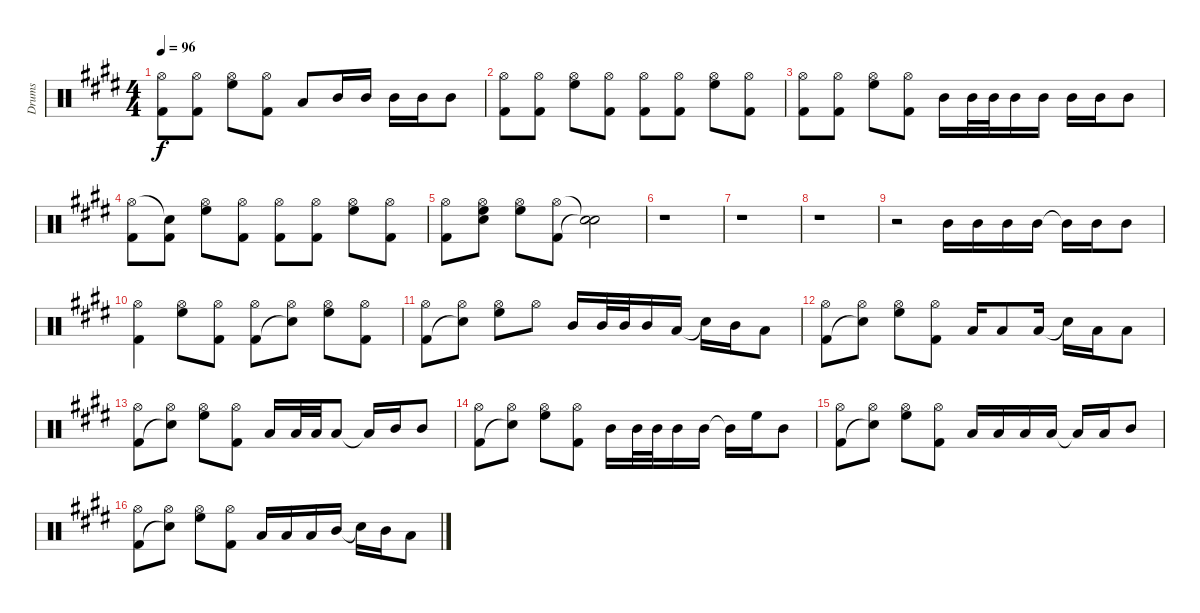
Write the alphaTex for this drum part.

\track ("Drums" "Drums") {instrument percussion}
\staff {score}
\articulation defaults
\ts (4 4)
\tempo 96
\clef neutral
\ks e
("Hi-Hat (open)" "Kick (hit) 2").8{dy f} ("Hi-Hat (open)" "Kick (hit) 2").8 ("Hi-Hat (open)" "High Floor Tom (hit)").8 ("Hi-Hat (open)" "Kick (hit) 2").8 "Low Tom (hit)".8 "Mid Tom (hit)".16 "Mid Tom (hit)".16 "Mid Tom (hit)".16 "Mid Tom (hit)".16 "Mid Tom (hit)".8 |
("Hi-Hat (open)" "Kick (hit) 2").8 ("Hi-Hat (open)" "Kick (hit) 2").8 ("Hi-Hat (open)" "High Floor Tom (hit)").8 ("Hi-Hat (open)" "Kick (hit) 2").8 ("Hi-Hat (open)" "Kick (hit) 2").8 ("Hi-Hat (open)" "Kick (hit) 2").8 ("Hi-Hat (open)" "High Floor Tom (hit)").8 ("Hi-Hat (open)" "Kick (hit) 2").8 |
("Hi-Hat (open)" "Kick (hit) 2").8 ("Hi-Hat (open)" "Kick (hit) 2").8 ("Hi-Hat (open)" "High Floor Tom (hit)").8 ("Hi-Hat (open)" "Kick (hit) 2").8 "Mid Tom (hit)".16 "Mid Tom (hit)".32 "Mid Tom (hit)".32 "Mid Tom (hit)".16 "Mid Tom (hit)".16 "Mid Tom (hit)".16 "Mid Tom (hit)".16 "Mid Tom (hit)".8 |
("Hi-Hat (open)" "Kick (hit) 2").8 ("Snare (hit)"{t} "Kick (hit) 2").8 ("Hi-Hat (open)" "High Floor Tom (hit)").8 ("Hi-Hat (open)" "Kick (hit) 2").8 ("Hi-Hat (open)" "Kick (hit) 2").8 ("Hi-Hat (open)" "Kick (hit) 2").8 ("Hi-Hat (open)" "High Floor Tom (hit)").8 ("Hi-Hat (open)" "Kick (hit) 2").8 |
("Hi-Hat (open)" "Kick (hit) 2").8 ("Hi-Hat (open)" "High Floor Tom (hit)" "Snare (hit)").8 ("Hi-Hat (open)" "High Floor Tom (hit)").8 ("Hi-Hat (open)" "Kick (hit) 2").8 ("Snare (hit)"{t} "Snare (hit)"{t}).2 |
r.1 |
r.1 |
r.1 |
r.2 "Mid Tom (hit)".16 "Mid Tom (hit)".16 "Mid Tom (hit)".16 "Mid Tom (hit)".16 "Mid Tom (hit)"{t}.16 "Mid Tom (hit)".16 "Mid Tom (hit)".8 |
("Hi-Hat (open)" "Kick (hit) 2").4 ("Hi-Hat (open)" "High Floor Tom (hit)").8 ("Hi-Hat (open)" "Kick (hit) 2").8 ("Hi-Hat (open)" "Kick (hit) 2").8 ("Hi-Hat (open)" "Snare (hit)"{t}).8 ("Hi-Hat (open)" "High Floor Tom (hit)").8 ("Hi-Hat (open)" "Kick (hit) 2").8 |
("Hi-Hat (open)" "Kick (hit) 2").8 ("Hi-Hat (open)" "Snare (hit)"{t}).8 ("Hi-Hat (open)" "High Floor Tom (hit)").8 "Hi-Hat (open)".8 "Mid Tom (hit)".16 "Mid Tom (hit)".32 "Mid Tom (hit)".32 "Mid Tom (hit)".16 "Low Tom (hit)".16 "Snare (hit)"{t}.16 "Mid Tom (hit)".16 "Low Tom (hit)".8 |
("Hi-Hat (open)" "Kick (hit) 2").8 ("Hi-Hat (open)" "Snare (hit)"{t}).8 ("Hi-Hat (open)" "High Floor Tom (hit)").8 ("Hi-Hat (open)" "Kick (hit) 2").8 "Low Tom (hit)".16 "Low Tom (hit)".8 "Low Tom (hit)".16 "Snare (hit)"{t}.16 "Low Tom (hit)".16 "Low Tom (hit)".8 |
("Hi-Hat (open)" "Kick (hit) 2").8 ("Hi-Hat (open)" "Snare (hit)"{t}).8 ("Hi-Hat (open)" "High Floor Tom (hit)").8 ("Hi-Hat (open)" "Kick (hit) 2").8 "Low Tom (hit)".16 "Low Tom (hit)".32 "Low Tom (hit)".32 "Low Tom (hit)".8 "Low Tom (hit)"{t}.16 "Mid Tom (hit)".16 "Mid Tom (hit)".8 |
("Hi-Hat (open)" "Kick (hit) 2").8 ("Hi-Hat (open)" "Snare (hit)"{t}).8 ("Hi-Hat (open)" "High Floor Tom (hit)").8 ("Hi-Hat (open)" "Kick (hit) 2").8 "Mid Tom (hit)".16 "Mid Tom (hit)".32 "Mid Tom (hit)".32 "Mid Tom (hit)".16 "Mid Tom (hit)".16 "Mid Tom (hit)"{t}.16 "High Floor Tom (hit)".16 "Mid Tom (hit)".8 |
("Hi-Hat (open)" "Kick (hit) 2").8 ("Hi-Hat (open)" "Snare (hit)"{t}).8 ("Hi-Hat (open)" "High Floor Tom (hit)").8 ("Hi-Hat (open)" "Kick (hit) 2").8 "Low Tom (hit)".16 "Low Tom (hit)".16 "Low Tom (hit)".16 "Low Tom (hit)".16 "Low Tom (hit)"{t}.16 "Low Tom (hit)".16 "Mid Tom (hit)".8 |
("Hi-Hat (open)" "Kick (hit) 2").8 ("Hi-Hat (open)" "Snare (hit)"{t}).8 ("Hi-Hat (open)" "High Floor Tom (hit)").8 ("Hi-Hat (open)" "Kick (hit) 2").8 "Low Tom (hit)".16 "Low Tom (hit)".16 "Low Tom (hit)".16 "Mid Tom (hit)".16 "Snare (hit)"{t}.16 "Mid Tom (hit)".16 "Low Tom (hit)".8
